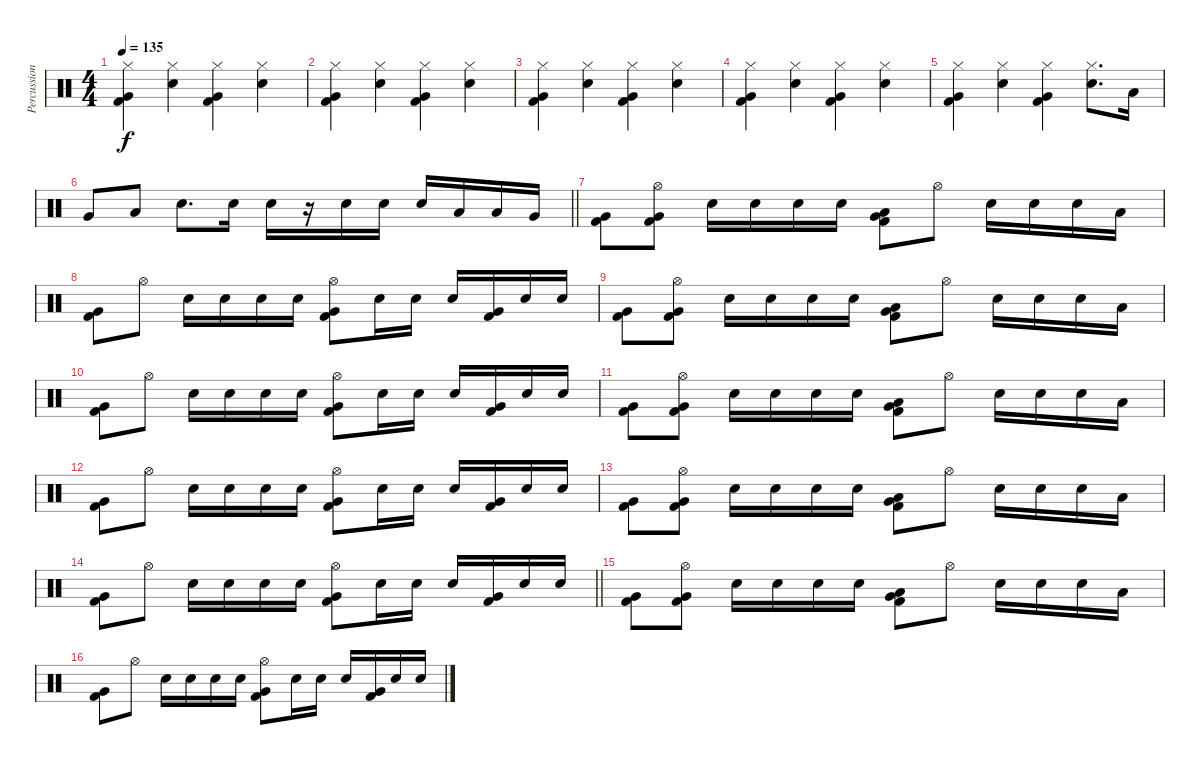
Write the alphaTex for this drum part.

\track ("Percussion" "Percussion") {instrument percussion}
\staff {score}
\articulation defaults
\ts (4 4)
\tempo 135
\clef neutral
\ks c
("Hi-Hat (closed)" "Very Low Tom (hit)" "Kick (hit) 2").4{dy f} ("Hi-Hat (closed)" "Electric Snare (hit)").4 ("Hi-Hat (closed)" "Very Low Tom (hit)" "Kick (hit) 2").4 ("Hi-Hat (closed)" "Electric Snare (hit)").4 |
("Hi-Hat (closed)" "Very Low Tom (hit)" "Kick (hit) 2").4 ("Hi-Hat (closed)" "Electric Snare (hit)").4 ("Hi-Hat (closed)" "Very Low Tom (hit)" "Kick (hit) 2").4 ("Hi-Hat (closed)" "Electric Snare (hit)").4 |
("Hi-Hat (closed)" "Very Low Tom (hit)" "Kick (hit) 2").4 ("Hi-Hat (closed)" "Electric Snare (hit)").4 ("Hi-Hat (closed)" "Very Low Tom (hit)" "Kick (hit) 2").4 ("Hi-Hat (closed)" "Electric Snare (hit)").4 |
("Hi-Hat (closed)" "Very Low Tom (hit)" "Kick (hit) 2").4 ("Hi-Hat (closed)" "Electric Snare (hit)").4 ("Hi-Hat (closed)" "Very Low Tom (hit)" "Kick (hit) 2").4 ("Hi-Hat (closed)" "Electric Snare (hit)").4 |
("Hi-Hat (closed)" "Very Low Tom (hit)" "Kick (hit) 2").4 ("Hi-Hat (closed)" "Electric Snare (hit)").4 ("Hi-Hat (closed)" "Very Low Tom (hit)" "Kick (hit) 2").4 ("Hi-Hat (closed)" "Electric Snare (hit)").8{d} "Low Tom (hit)".16 |
\barLineRight lightlight "Very Low Tom (hit)".8 "Low Floor Tom (hit)".8 "Electric Snare (hit)".8{d} "Electric Snare (hit)".16 "Electric Snare (hit)".16
r.16 "Electric Snare (hit)".16 "Electric Snare (hit)".16 "Electric Snare (hit)".16 "Low Tom (hit)".16 "Low Tom (hit)".16 "Very Low Tom (hit)".16 |
("Very Low Tom (hit)" "Kick (hit) 2").8 ("Hi-Hat (open)" "Very Low Tom (hit)" "Kick (hit) 2").8 "Electric Snare (hit)".16 "Electric Snare (hit)".16 "Electric Snare (hit)".16 "Electric Snare (hit)".16 ("Low Tom (hit)" "Very Low Tom (hit)" "Kick (hit) 2").8 "Hi-Hat (open)".8 "Electric Snare (hit)".16 "Electric Snare (hit)".16 "Electric Snare (hit)".16 "Low Tom (hit)".16 |
("Very Low Tom (hit)" "Kick (hit) 2").8 "Hi-Hat (open)".8 "Electric Snare (hit)".16 "Electric Snare (hit)".16 "Electric Snare (hit)".16 "Electric Snare (hit)".16 ("Hi-Hat (open)" "Very Low Tom (hit)" "Kick (hit) 2").8 "Electric Snare (hit)".16 "Electric Snare (hit)".16 "Electric Snare (hit)".16 ("Very Low Tom (hit)" "Kick (hit) 2").16 "Electric Snare (hit)".16 "Electric Snare (hit)".16 |
("Very Low Tom (hit)" "Kick (hit) 2").8 ("Hi-Hat (open)" "Very Low Tom (hit)" "Kick (hit) 2").8 "Electric Snare (hit)".16 "Electric Snare (hit)".16 "Electric Snare (hit)".16 "Electric Snare (hit)".16 ("Low Tom (hit)" "Very Low Tom (hit)" "Kick (hit) 2").8 "Hi-Hat (open)".8 "Electric Snare (hit)".16 "Electric Snare (hit)".16 "Electric Snare (hit)".16 "Low Tom (hit)".16 |
("Very Low Tom (hit)" "Kick (hit) 2").8 "Hi-Hat (open)".8 "Electric Snare (hit)".16 "Electric Snare (hit)".16 "Electric Snare (hit)".16 "Electric Snare (hit)".16 ("Hi-Hat (open)" "Very Low Tom (hit)" "Kick (hit) 2").8 "Electric Snare (hit)".16 "Electric Snare (hit)".16 "Electric Snare (hit)".16 ("Very Low Tom (hit)" "Kick (hit) 2").16 "Electric Snare (hit)".16 "Electric Snare (hit)".16 |
("Very Low Tom (hit)" "Kick (hit) 2").8 ("Hi-Hat (open)" "Very Low Tom (hit)" "Kick (hit) 2").8 "Electric Snare (hit)".16 "Electric Snare (hit)".16 "Electric Snare (hit)".16 "Electric Snare (hit)".16 ("Low Tom (hit)" "Very Low Tom (hit)" "Kick (hit) 2").8 "Hi-Hat (open)".8 "Electric Snare (hit)".16 "Electric Snare (hit)".16 "Electric Snare (hit)".16 "Low Tom (hit)".16 |
("Very Low Tom (hit)" "Kick (hit) 2").8 "Hi-Hat (open)".8 "Electric Snare (hit)".16 "Electric Snare (hit)".16 "Electric Snare (hit)".16 "Electric Snare (hit)".16 ("Hi-Hat (open)" "Very Low Tom (hit)" "Kick (hit) 2").8 "Electric Snare (hit)".16 "Electric Snare (hit)".16 "Electric Snare (hit)".16 ("Very Low Tom (hit)" "Kick (hit) 2").16 "Electric Snare (hit)".16 "Electric Snare (hit)".16 |
("Very Low Tom (hit)" "Kick (hit) 2").8 ("Hi-Hat (open)" "Very Low Tom (hit)" "Kick (hit) 2").8 "Electric Snare (hit)".16 "Electric Snare (hit)".16 "Electric Snare (hit)".16 "Electric Snare (hit)".16 ("Low Tom (hit)" "Very Low Tom (hit)" "Kick (hit) 2").8 "Hi-Hat (open)".8 "Electric Snare (hit)".16 "Electric Snare (hit)".16 "Electric Snare (hit)".16 "Low Tom (hit)".16 |
\barLineRight lightlight
("Very Low Tom (hit)" "Kick (hit) 2").8 "Hi-Hat (open)".8 "Electric Snare (hit)".16 "Electric Snare (hit)".16 "Electric Snare (hit)".16 "Electric Snare (hit)".16 ("Hi-Hat (open)" "Very Low Tom (hit)" "Kick (hit) 2").8 "Electric Snare (hit)".16 "Electric Snare (hit)".16 "Electric Snare (hit)".16 ("Very Low Tom (hit)" "Kick (hit) 2").16 "Electric Snare (hit)".16 "Electric Snare (hit)".16 |
("Very Low Tom (hit)" "Kick (hit) 2").8 ("Hi-Hat (open)" "Very Low Tom (hit)" "Kick (hit) 2").8 "Electric Snare (hit)".16 "Electric Snare (hit)".16 "Electric Snare (hit)".16 "Electric Snare (hit)".16 ("Low Tom (hit)" "Very Low Tom (hit)" "Kick (hit) 2").8 "Hi-Hat (open)".8 "Electric Snare (hit)".16 "Electric Snare (hit)".16 "Electric Snare (hit)".16 "Low Tom (hit)".16 |
("Very Low Tom (hit)" "Kick (hit) 2").8 "Hi-Hat (open)".8 "Electric Snare (hit)".16 "Electric Snare (hit)".16 "Electric Snare (hit)".16 "Electric Snare (hit)".16 ("Hi-Hat (open)" "Very Low Tom (hit)" "Kick (hit) 2").8 "Electric Snare (hit)".16 "Electric Snare (hit)".16 "Electric Snare (hit)".16 ("Very Low Tom (hit)" "Kick (hit) 2").16 "Electric Snare (hit)".16 "Electric Snare (hit)".16
